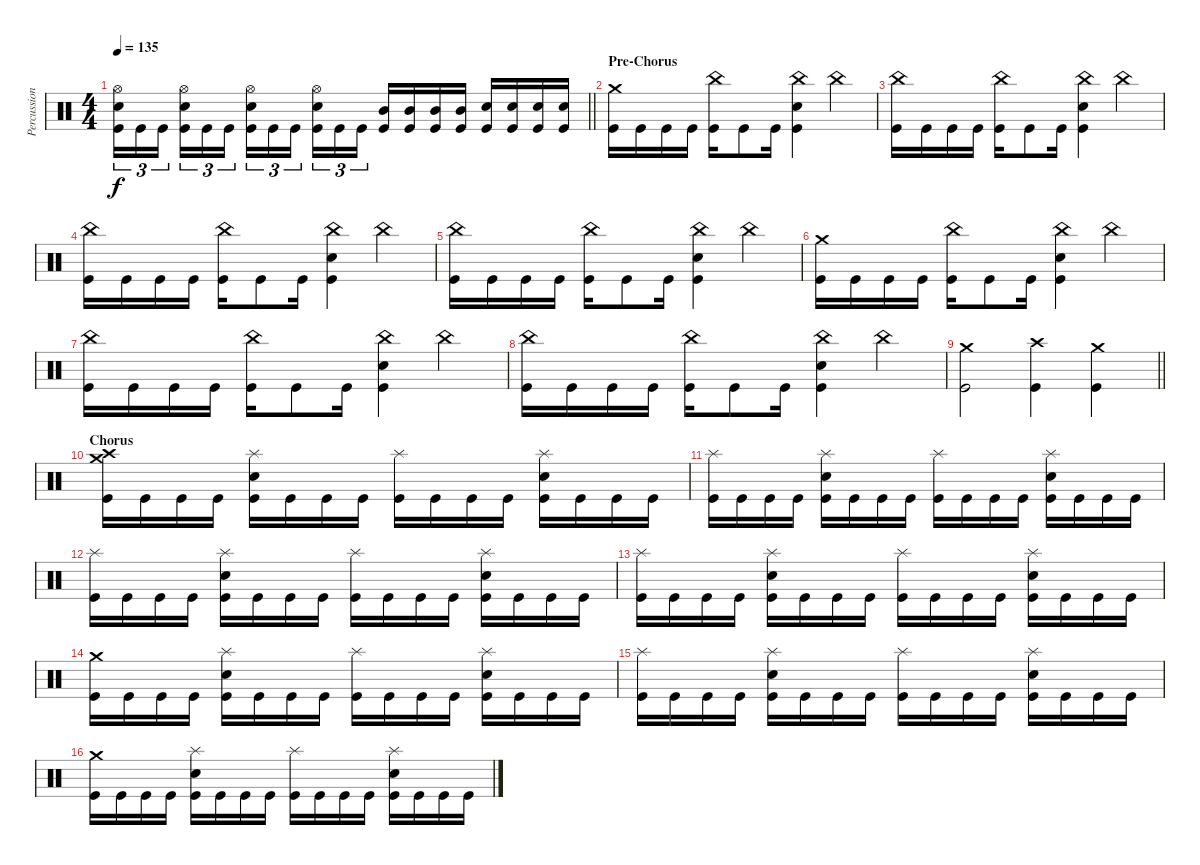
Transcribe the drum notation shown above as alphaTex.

\track ("Percussion" "Percussion") {instrument percussion}
\staff {score}
\articulation defaults
\ts (4 4)
\tempo 135
\clef neutral
\barLineRight lightlight
\ks c
("Hi-Hat (open)" "Electric Snare (hit)" "Kick (hit)").16{tu (3 2) dy f} "Kick (hit)".16{tu (3 2)} "Kick (hit)".16{tu (3 2) beam splitsecondary} ("Hi-Hat (open)" "Electric Snare (hit)" "Kick (hit)").16{tu (3 2)} "Kick (hit)".16{tu (3 2)} "Kick (hit)".16{tu (3 2)} ("Hi-Hat (open)" "Electric Snare (hit)" "Kick (hit)").16{tu (3 2)} "Kick (hit)".16{tu (3 2)} "Kick (hit)".16{tu (3 2) beam splitsecondary} ("Hi-Hat (open)" "Electric Snare (hit)" "Kick (hit)").16{tu (3 2)} "Kick (hit)".16{tu (3 2)} "Kick (hit)".16{tu (3 2)} ("Mid Tom (hit)" "Kick (hit)").16 ("Mid Tom (hit)" "Kick (hit)").16 ("Mid Tom (hit)" "Kick (hit)").16 ("Mid Tom (hit)" "Kick (hit)").16 ("Electric Snare (hit)" "Kick (hit)").16 ("Electric Snare (hit)" "Kick (hit)").16 ("Electric Snare (hit)" "Kick (hit)").16 ("Electric Snare (hit)" "Kick (hit)").16 |
\section ("" "Pre-Chorus")
("Crash medium (hit)" "Kick (hit)").16 "Kick (hit)".16 "Kick (hit)".16 "Kick (hit)".16 ("China (hit)" "Kick (hit)").16 "Kick (hit)".8 "Kick (hit)".16 ("China (hit)" "Electric Snare (hit)" "Kick (hit)").4 "China (hit)".4 |
("China (hit)" "Kick (hit)").16 "Kick (hit)".16 "Kick (hit)".16 "Kick (hit)".16 ("China (hit)" "Kick (hit)").16 "Kick (hit)".8 "Kick (hit)".16 ("China (hit)" "Electric Snare (hit)" "Kick (hit)").4 "China (hit)".4 |
("China (hit)" "Kick (hit)").16 "Kick (hit)".16 "Kick (hit)".16 "Kick (hit)".16 ("China (hit)" "Kick (hit)").16 "Kick (hit)".8 "Kick (hit)".16 ("China (hit)" "Electric Snare (hit)" "Kick (hit)").4 "China (hit)".4 |
("China (hit)" "Kick (hit)").16 "Kick (hit)".16 "Kick (hit)".16 "Kick (hit)".16 ("China (hit)" "Kick (hit)").16 "Kick (hit)".8 "Kick (hit)".16 ("China (hit)" "Electric Snare (hit)" "Kick (hit)").4 "China (hit)".4 |
("Crash medium (hit)" "Kick (hit)").16 "Kick (hit)".16 "Kick (hit)".16 "Kick (hit)".16 ("China (hit)" "Kick (hit)").16 "Kick (hit)".8 "Kick (hit)".16 ("China (hit)" "Electric Snare (hit)" "Kick (hit)").4 "China (hit)".4 |
("China (hit)" "Kick (hit)").16 "Kick (hit)".16 "Kick (hit)".16 "Kick (hit)".16 ("China (hit)" "Kick (hit)").16 "Kick (hit)".8 "Kick (hit)".16 ("China (hit)" "Electric Snare (hit)" "Kick (hit)").4 "China (hit)".4 |
("China (hit)" "Kick (hit)").16 "Kick (hit)".16 "Kick (hit)".16 "Kick (hit)".16 ("China (hit)" "Kick (hit)").16 "Kick (hit)".8 "Kick (hit)".16 ("China (hit)" "Electric Snare (hit)" "Kick (hit)").4 "China (hit)".4 |
\barLineRight lightlight
("Crash medium (hit)" "Kick (hit)").2 ("Crash high (hit)" "Kick (hit)").4 ("Crash medium (hit)" "Kick (hit)").4 |
\section ("" "Chorus")
("Crash medium (hit)" "Crash high (hit)" "Kick (hit)").16 "Kick (hit)".16 "Kick (hit)".16 "Kick (hit)".16 ("Splash (hit)" "Electric Snare (hit)" "Kick (hit)").16 "Kick (hit)".16 "Kick (hit)".16 "Kick (hit)".16 ("Splash (hit)" "Kick (hit)").16 "Kick (hit)".16 "Kick (hit)".16 "Kick (hit)".16 ("Splash (hit)" "Electric Snare (hit)" "Kick (hit)").16 "Kick (hit)".16 "Kick (hit)".16 "Kick (hit)".16 |
("Splash (hit)" "Kick (hit)").16 "Kick (hit)".16 "Kick (hit)".16 "Kick (hit)".16 ("Splash (hit)" "Electric Snare (hit)" "Kick (hit)").16 "Kick (hit)".16 "Kick (hit)".16 "Kick (hit)".16 ("Splash (hit)" "Kick (hit)").16 "Kick (hit)".16 "Kick (hit)".16 "Kick (hit)".16 ("Splash (hit)" "Electric Snare (hit)" "Kick (hit)").16 "Kick (hit)".16 "Kick (hit)".16 "Kick (hit)".16 |
("Splash (hit)" "Kick (hit)").16 "Kick (hit)".16 "Kick (hit)".16 "Kick (hit)".16 ("Splash (hit)" "Electric Snare (hit)" "Kick (hit)").16 "Kick (hit)".16 "Kick (hit)".16 "Kick (hit)".16 ("Splash (hit)" "Kick (hit)").16 "Kick (hit)".16 "Kick (hit)".16 "Kick (hit)".16 ("Splash (hit)" "Electric Snare (hit)" "Kick (hit)").16 "Kick (hit)".16 "Kick (hit)".16 "Kick (hit)".16 |
("Splash (hit)" "Kick (hit)").16 "Kick (hit)".16 "Kick (hit)".16 "Kick (hit)".16 ("Splash (hit)" "Electric Snare (hit)" "Kick (hit)").16 "Kick (hit)".16 "Kick (hit)".16 "Kick (hit)".16 ("Splash (hit)" "Kick (hit)").16 "Kick (hit)".16 "Kick (hit)".16 "Kick (hit)".16 ("Splash (hit)" "Electric Snare (hit)" "Kick (hit)").16 "Kick (hit)".16 "Kick (hit)".16 "Kick (hit)".16 |
("Crash medium (hit)" "Kick (hit)").16 "Kick (hit)".16 "Kick (hit)".16 "Kick (hit)".16 ("Splash (hit)" "Electric Snare (hit)" "Kick (hit)").16 "Kick (hit)".16 "Kick (hit)".16 "Kick (hit)".16 ("Splash (hit)" "Kick (hit)").16 "Kick (hit)".16 "Kick (hit)".16 "Kick (hit)".16 ("Splash (hit)" "Electric Snare (hit)" "Kick (hit)").16 "Kick (hit)".16 "Kick (hit)".16 "Kick (hit)".16 |
("Splash (hit)" "Kick (hit)").16 "Kick (hit)".16 "Kick (hit)".16 "Kick (hit)".16 ("Splash (hit)" "Electric Snare (hit)" "Kick (hit)").16 "Kick (hit)".16 "Kick (hit)".16 "Kick (hit)".16 ("Splash (hit)" "Kick (hit)").16 "Kick (hit)".16 "Kick (hit)".16 "Kick (hit)".16 ("Splash (hit)" "Electric Snare (hit)" "Kick (hit)").16 "Kick (hit)".16 "Kick (hit)".16 "Kick (hit)".16 |
("Crash medium (hit)" "Kick (hit)").16 "Kick (hit)".16 "Kick (hit)".16 "Kick (hit)".16 ("Splash (hit)" "Electric Snare (hit)" "Kick (hit)").16 "Kick (hit)".16 "Kick (hit)".16 "Kick (hit)".16 ("Splash (hit)" "Kick (hit)").16 "Kick (hit)".16 "Kick (hit)".16 "Kick (hit)".16 ("Splash (hit)" "Electric Snare (hit)" "Kick (hit)").16 "Kick (hit)".16 "Kick (hit)".16 "Kick (hit)".16
